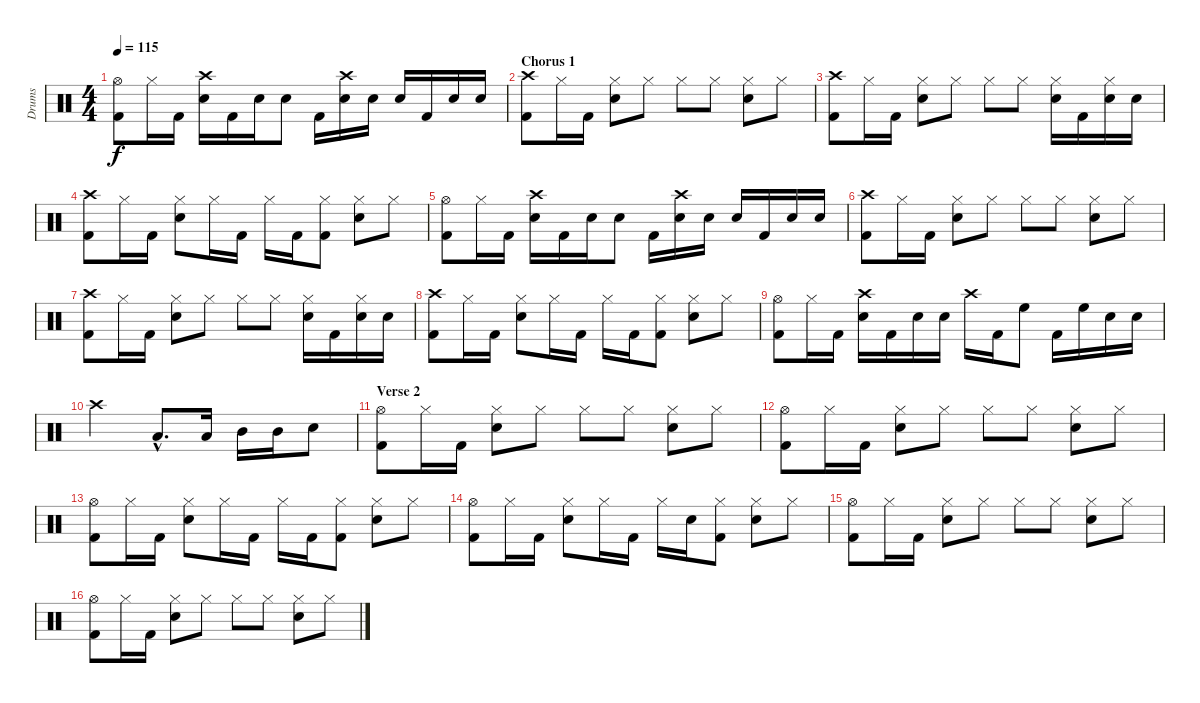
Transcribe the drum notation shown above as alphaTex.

\track ("Drums" "Drums") {instrument percussion}
\staff {score}
\articulation defaults
\ts (4 4)
\tempo 115
\clef neutral
\ks c
("Hi-Hat (open)" "Kick (hit) 2").8{dy f} "Hi-Hat (closed)".16 "Kick (hit) 2".16 ("Crash high (hit)" "Electric Snare (hit)").16 "Kick (hit) 2".16 "Electric Snare (hit)".16 "Electric Snare (hit)".8 "Kick (hit) 2".16 ("Crash high (hit)" "Electric Snare (hit)").16 "Electric Snare (hit)".16 "Electric Snare (hit)".16 "Kick (hit) 2".16 "Electric Snare (hit)".16 "Electric Snare (hit)".16 |
\section ("" "Chorus 1")
("Crash high (hit)" "Kick (hit) 2").8 "Hi-Hat (closed)".16 "Kick (hit) 2".16 ("Hi-Hat (closed)" "Electric Snare (hit)").8 "Hi-Hat (closed)".8 "Hi-Hat (closed)".8 "Hi-Hat (closed)".8 ("Hi-Hat (closed)" "Electric Snare (hit)").8 "Hi-Hat (closed)".8 |
("Crash high (hit)" "Kick (hit) 2").8 "Hi-Hat (closed)".16 "Kick (hit) 2".16 ("Hi-Hat (closed)" "Electric Snare (hit)").8 "Hi-Hat (closed)".8 "Hi-Hat (closed)".8 "Hi-Hat (closed)".8 ("Hi-Hat (closed)" "Electric Snare (hit)").16 "Kick (hit) 2".16 ("Hi-Hat (closed)" "Electric Snare (hit)").16 "Electric Snare (hit)".16 |
("Crash high (hit)" "Kick (hit) 2").8 "Hi-Hat (closed)".16 "Kick (hit) 2".16 ("Hi-Hat (closed)" "Electric Snare (hit)").8 "Hi-Hat (closed)".16 "Kick (hit) 2".16 "Hi-Hat (closed)".16 "Kick (hit) 2".16 ("Hi-Hat (closed)" "Kick (hit) 2").8 ("Hi-Hat (closed)" "Electric Snare (hit)").8 "Hi-Hat (closed)".8 |
("Hi-Hat (open)" "Kick (hit) 2").8 "Hi-Hat (closed)".16 "Kick (hit) 2".16 ("Crash high (hit)" "Electric Snare (hit)").16 "Kick (hit) 2".16 "Electric Snare (hit)".16 "Electric Snare (hit)".8 "Kick (hit) 2".16 ("Crash high (hit)" "Electric Snare (hit)").16 "Electric Snare (hit)".16 "Electric Snare (hit)".16 "Kick (hit) 2".16 "Electric Snare (hit)".16 "Electric Snare (hit)".16 |
("Crash high (hit)" "Kick (hit) 2").8 "Hi-Hat (closed)".16 "Kick (hit) 2".16 ("Hi-Hat (closed)" "Electric Snare (hit)").8 "Hi-Hat (closed)".8 "Hi-Hat (closed)".8 "Hi-Hat (closed)".8 ("Hi-Hat (closed)" "Electric Snare (hit)").8 "Hi-Hat (closed)".8 |
("Crash high (hit)" "Kick (hit) 2").8 "Hi-Hat (closed)".16 "Kick (hit) 2".16 ("Hi-Hat (closed)" "Electric Snare (hit)").8 "Hi-Hat (closed)".8 "Hi-Hat (closed)".8 "Hi-Hat (closed)".8 ("Hi-Hat (closed)" "Electric Snare (hit)").16 "Kick (hit) 2".16 ("Hi-Hat (closed)" "Electric Snare (hit)").16 "Electric Snare (hit)".16 |
("Crash high (hit)" "Kick (hit) 2").8 "Hi-Hat (closed)".16 "Kick (hit) 2".16 ("Hi-Hat (closed)" "Electric Snare (hit)").8 "Hi-Hat (closed)".16 "Kick (hit) 2".16 "Hi-Hat (closed)".16 "Kick (hit) 2".16 ("Hi-Hat (closed)" "Kick (hit) 2").8 ("Hi-Hat (closed)" "Electric Snare (hit)").8 "Hi-Hat (closed)".8 |
("Hi-Hat (open)" "Kick (hit) 2").8 "Hi-Hat (closed)".16 "Kick (hit) 2".16 ("Crash high (hit)" "Electric Snare (hit)").16 "Kick (hit) 2".16 "Electric Snare (hit)".16 "Electric Snare (hit)".16 "Crash high (hit)".16 "Kick (hit) 2".16 "High Floor Tom (hit)".8 "Kick (hit) 2".16 "High Floor Tom (hit)".16 "Electric Snare (hit)".16 "Electric Snare (hit)".16 |
"Crash high (hit)".2 "Low Tom (hit)"{hac}.8{d} "Low Tom (hit)".16 "Mid Tom (hit)".16 "Mid Tom (hit)".16 "Electric Snare (hit)".8 |
\section ("" "Verse 2")
("Hi-Hat (open)" "Kick (hit) 2").8 "Hi-Hat (closed)".16 "Kick (hit) 2".16 ("Hi-Hat (closed)" "Electric Snare (hit)").8 "Hi-Hat (closed)".8 "Hi-Hat (closed)".8 "Hi-Hat (closed)".8 ("Hi-Hat (closed)" "Electric Snare (hit)").8 "Hi-Hat (closed)".8 |
("Hi-Hat (open)" "Kick (hit) 2").8 "Hi-Hat (closed)".16 "Kick (hit) 2".16 ("Hi-Hat (closed)" "Electric Snare (hit)").8 "Hi-Hat (closed)".8 "Hi-Hat (closed)".8 "Hi-Hat (closed)".8 ("Hi-Hat (closed)" "Electric Snare (hit)").8 "Hi-Hat (closed)".8 |
("Hi-Hat (open)" "Kick (hit) 2").8 "Hi-Hat (closed)".16 "Kick (hit) 2".16 ("Hi-Hat (closed)" "Electric Snare (hit)").8 "Hi-Hat (closed)".16 "Kick (hit) 2".16 "Hi-Hat (closed)".16 "Kick (hit) 2".16 ("Hi-Hat (closed)" "Kick (hit) 2").8 ("Hi-Hat (closed)" "Electric Snare (hit)").8 "Hi-Hat (closed)".8 |
("Hi-Hat (open)" "Kick (hit) 2").8 "Hi-Hat (closed)".16 "Kick (hit) 2".16 ("Hi-Hat (closed)" "Electric Snare (hit)").8 "Hi-Hat (closed)".16 "Kick (hit) 2".16 "Hi-Hat (closed)".16 "Electric Snare (hit)".16 ("Hi-Hat (closed)" "Kick (hit) 2").8 ("Hi-Hat (closed)" "Electric Snare (hit)").8 "Hi-Hat (closed)".8 |
("Hi-Hat (open)" "Kick (hit) 2").8 "Hi-Hat (closed)".16 "Kick (hit) 2".16 ("Hi-Hat (closed)" "Electric Snare (hit)").8 "Hi-Hat (closed)".8 "Hi-Hat (closed)".8 "Hi-Hat (closed)".8 ("Hi-Hat (closed)" "Electric Snare (hit)").8 "Hi-Hat (closed)".8 |
("Hi-Hat (open)" "Kick (hit) 2").8 "Hi-Hat (closed)".16 "Kick (hit) 2".16 ("Hi-Hat (closed)" "Electric Snare (hit)").8 "Hi-Hat (closed)".8 "Hi-Hat (closed)".8 "Hi-Hat (closed)".8 ("Hi-Hat (closed)" "Electric Snare (hit)").8 "Hi-Hat (closed)".8
